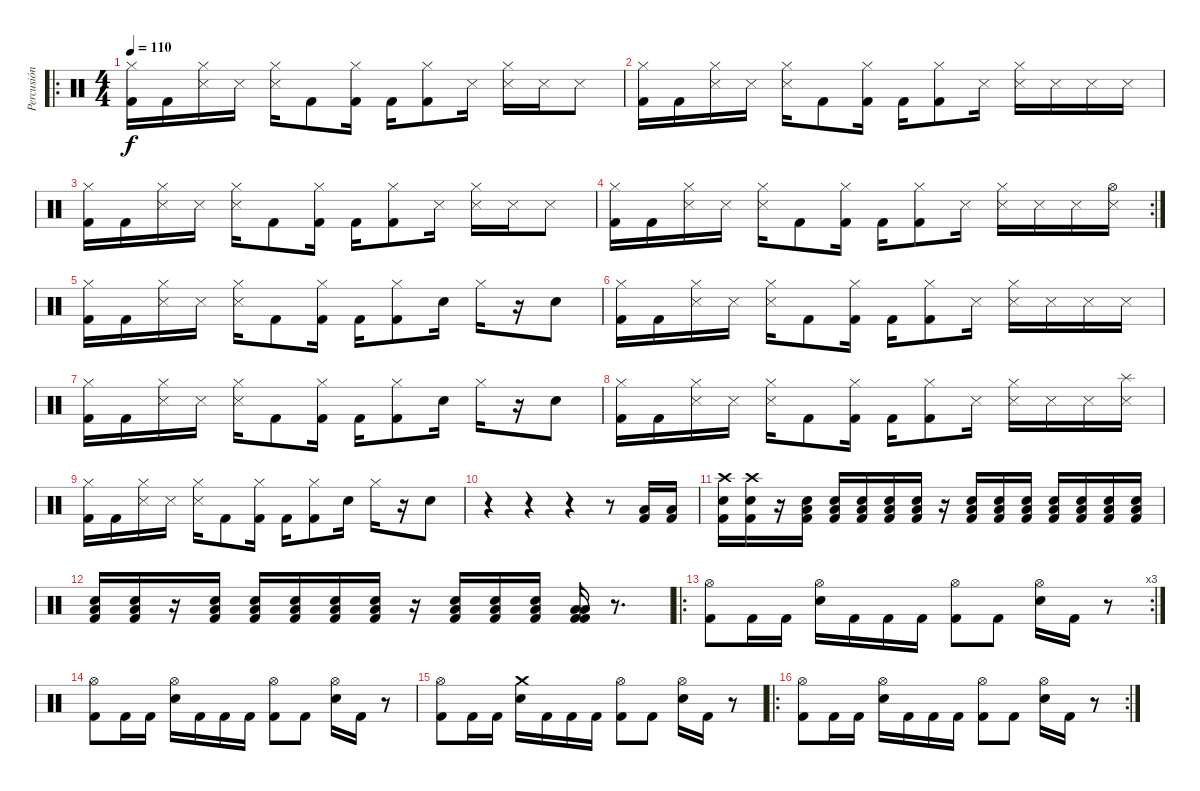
\track ("Percusión" "Percusión") {instrument percussion}
\staff {score}
\articulation defaults
\ro
\ts (4 4)
\tempo 110
\clef neutral
\ks c
("Hi-Hat (closed)" "Kick (hit) 2").16{dy f} "Kick (hit) 2".16 ("Hi-Hat (closed)" "Metronome (hit)").16 "Metronome (hit)".16 ("Hi-Hat (closed)" "Metronome (hit)").16 "Kick (hit) 2".8 ("Hi-Hat (closed)" "Kick (hit) 2").16 "Kick (hit) 2".16 ("Hi-Hat (closed)" "Kick (hit) 2").8 "Metronome (hit)".16 ("Hi-Hat (closed)" "Metronome (hit)").16 "Metronome (hit)".16 "Metronome (hit)".8 |
("Hi-Hat (closed)" "Kick (hit) 2").16 "Kick (hit) 2".16 ("Hi-Hat (closed)" "Metronome (hit)").16 "Metronome (hit)".16 ("Hi-Hat (closed)" "Metronome (hit)").16 "Kick (hit) 2".8 ("Hi-Hat (closed)" "Kick (hit) 2").16 "Kick (hit) 2".16 ("Hi-Hat (closed)" "Kick (hit) 2").8 "Metronome (hit)".16 ("Hi-Hat (closed)" "Metronome (hit)").16 "Metronome (hit)".16 "Metronome (hit)".16 "Metronome (hit)".16 |
("Hi-Hat (closed)" "Kick (hit) 2").16 "Kick (hit) 2".16 ("Hi-Hat (closed)" "Metronome (hit)").16 "Metronome (hit)".16 ("Hi-Hat (closed)" "Metronome (hit)").16 "Kick (hit) 2".8 ("Hi-Hat (closed)" "Kick (hit) 2").16 "Kick (hit) 2".16 ("Hi-Hat (closed)" "Kick (hit) 2").8 "Metronome (hit)".16 ("Hi-Hat (closed)" "Metronome (hit)").16 "Metronome (hit)".16 "Metronome (hit)".8 |
\rc 2
("Hi-Hat (closed)" "Kick (hit) 2").16 "Kick (hit) 2".16 ("Hi-Hat (closed)" "Metronome (hit)").16 "Metronome (hit)".16 ("Hi-Hat (closed)" "Metronome (hit)").16 "Kick (hit) 2".8 ("Hi-Hat (closed)" "Kick (hit) 2").16 "Kick (hit) 2".16 ("Hi-Hat (closed)" "Kick (hit) 2").8 "Metronome (hit)".16 ("Hi-Hat (closed)" "Metronome (hit)").16 "Metronome (hit)".16 "Metronome (hit)".16 ("Hi-Hat (open)" "Metronome (hit)").16 |
("Hi-Hat (closed)" "Kick (hit) 2").16 "Kick (hit) 2".16 ("Hi-Hat (closed)" "Metronome (hit)").16 "Metronome (hit)".16 ("Hi-Hat (closed)" "Metronome (hit)").16 "Kick (hit) 2".8 ("Hi-Hat (closed)" "Kick (hit) 2").16 "Kick (hit) 2".16 ("Hi-Hat (closed)" "Kick (hit) 2").8 "Electric Snare (hit)".16 "Hi-Hat (closed)".16 r.16 "Electric Snare (hit)".8 |
("Hi-Hat (closed)" "Kick (hit) 2").16 "Kick (hit) 2".16 ("Hi-Hat (closed)" "Metronome (hit)").16 "Metronome (hit)".16 ("Hi-Hat (closed)" "Metronome (hit)").16 "Kick (hit) 2".8 ("Hi-Hat (closed)" "Kick (hit) 2").16 "Kick (hit) 2".16 ("Hi-Hat (closed)" "Kick (hit) 2").8 "Metronome (hit)".16 ("Hi-Hat (closed)" "Metronome (hit)").16 "Metronome (hit)".16 "Metronome (hit)".16 "Metronome (hit)".16 |
("Hi-Hat (closed)" "Kick (hit) 2").16 "Kick (hit) 2".16 ("Hi-Hat (closed)" "Metronome (hit)").16 "Metronome (hit)".16 ("Hi-Hat (closed)" "Metronome (hit)").16 "Kick (hit) 2".8 ("Hi-Hat (closed)" "Kick (hit) 2").16 "Kick (hit) 2".16 ("Hi-Hat (closed)" "Kick (hit) 2").8 "Electric Snare (hit)".16 "Hi-Hat (closed)".16 r.16 "Electric Snare (hit)".8 |
("Hi-Hat (closed)" "Kick (hit) 2").16 "Kick (hit) 2".16 ("Hi-Hat (closed)" "Metronome (hit)").16 "Metronome (hit)".16 ("Hi-Hat (closed)" "Metronome (hit)").16 "Kick (hit) 2".8 ("Hi-Hat (closed)" "Kick (hit) 2").16 "Kick (hit) 2".16 ("Hi-Hat (closed)" "Kick (hit) 2").8 "Metronome (hit)".16 ("Hi-Hat (closed)" "Metronome (hit)").16 "Metronome (hit)".16 "Metronome (hit)".16 ("Splash (hit)" "Metronome (hit)").16 |
("Hi-Hat (closed)" "Kick (hit) 2").16 "Kick (hit) 2".16 ("Hi-Hat (closed)" "Metronome (hit)").16 "Metronome (hit)".16 ("Hi-Hat (closed)" "Metronome (hit)").16 "Kick (hit) 2".8 ("Hi-Hat (closed)" "Kick (hit) 2").16 "Kick (hit) 2".16 ("Hi-Hat (closed)" "Kick (hit) 2").8 "Electric Snare (hit)".16 "Hi-Hat (closed)".16 r.16 "Electric Snare (hit)".8 |
r.4 r.4 r.4 r.8 ("Low Floor Tom (hit)" "Kick (hit) 2").16 ("Low Floor Tom (hit)" "Kick (hit) 2").16 |
("Crash high (hit)" "Kick (hit) 2" "Electric Snare (hit)").16 ("Crash high (hit)" "Kick (hit) 2" "Electric Snare (hit)").16 r.16 ("Low Tom (hit)" "Kick (hit) 2" "Electric Snare (hit)").16 ("Low Tom (hit)" "Kick (hit) 2" "Electric Snare (hit)").16 ("Low Tom (hit)" "Kick (hit) 2" "Electric Snare (hit)").16 ("Low Tom (hit)" "Kick (hit) 2" "Electric Snare (hit)").16 ("Low Tom (hit)" "Kick (hit) 2" "Electric Snare (hit)").16 r.16 ("Low Tom (hit)" "Kick (hit) 2" "Electric Snare (hit)").16 ("Low Tom (hit)" "Kick (hit) 2" "Electric Snare (hit)").16 ("Low Tom (hit)" "Kick (hit) 2" "Electric Snare (hit)").16 ("Low Tom (hit)" "Kick (hit) 2" "Electric Snare (hit)").16 ("Low Tom (hit)" "Kick (hit) 2" "Electric Snare (hit)").16 ("Low Tom (hit)" "Kick (hit) 2" "Electric Snare (hit)").16 ("Low Tom (hit)" "Kick (hit) 2" "Electric Snare (hit)").16 |
("Low Tom (hit)" "Kick (hit) 2" "Electric Snare (hit)").16 ("Low Tom (hit)" "Kick (hit) 2" "Electric Snare (hit)").16 r.16 ("Low Tom (hit)" "Kick (hit) 2" "Electric Snare (hit)").16 ("Low Tom (hit)" "Kick (hit) 2" "Electric Snare (hit)").16 ("Low Tom (hit)" "Kick (hit) 2" "Electric Snare (hit)").16 ("Low Tom (hit)" "Kick (hit) 2" "Electric Snare (hit)").16 ("Low Tom (hit)" "Kick (hit) 2" "Electric Snare (hit)").16 r.16 ("Low Tom (hit)" "Kick (hit) 2" "Electric Snare (hit)").16 ("Low Tom (hit)" "Kick (hit) 2" "Electric Snare (hit)").16 ("Low Tom (hit)" "Kick (hit) 2" "Electric Snare (hit)").16 ("Low Floor Tom (hit)" "Low Floor Tom (hit)" "Kick (hit) 2" "Kick (hit) 2").16 r.8{d} |
\ro
\rc 3
("Hi-Hat (open)" "Kick (hit) 2").8 "Kick (hit) 2".16 "Kick (hit) 2".16 ("Hi-Hat (open)" "Electric Snare (hit)").16 "Kick (hit) 2".16 "Kick (hit) 2".16 "Kick (hit) 2".16 ("Hi-Hat (open)" "Kick (hit) 2").8 "Kick (hit) 2".8 ("Hi-Hat (open)" "Electric Snare (hit)").16 "Kick (hit) 2".16 r.8 |
("Hi-Hat (open)" "Kick (hit) 2").8 "Kick (hit) 2".16 "Kick (hit) 2".16 ("Hi-Hat (open)" "Electric Snare (hit)").16 "Kick (hit) 2".16 "Kick (hit) 2".16 "Kick (hit) 2".16 ("Hi-Hat (open)" "Kick (hit) 2").8 "Kick (hit) 2".8 ("Hi-Hat (open)" "Electric Snare (hit)").16 "Kick (hit) 2".16 r.8 |
("Hi-Hat (open)" "Kick (hit) 2").8 "Kick (hit) 2".16 "Kick (hit) 2".16 ("Crash medium (hit)" "Electric Snare (hit)").16 "Kick (hit) 2".16 "Kick (hit) 2".16 "Kick (hit) 2".16 ("Hi-Hat (open)" "Kick (hit) 2").8 "Kick (hit) 2".8 ("Hi-Hat (open)" "Electric Snare (hit)").16 "Kick (hit) 2".16 r.8 |
\ro
\rc 2
("Hi-Hat (open)" "Kick (hit) 2").8 "Kick (hit) 2".16 "Kick (hit) 2".16 ("Hi-Hat (open)" "Electric Snare (hit)").16 "Kick (hit) 2".16 "Kick (hit) 2".16 "Kick (hit) 2".16 ("Hi-Hat (open)" "Kick (hit) 2").8 "Kick (hit) 2".8 ("Hi-Hat (open)" "Electric Snare (hit)").16 "Kick (hit) 2".16 r.8
